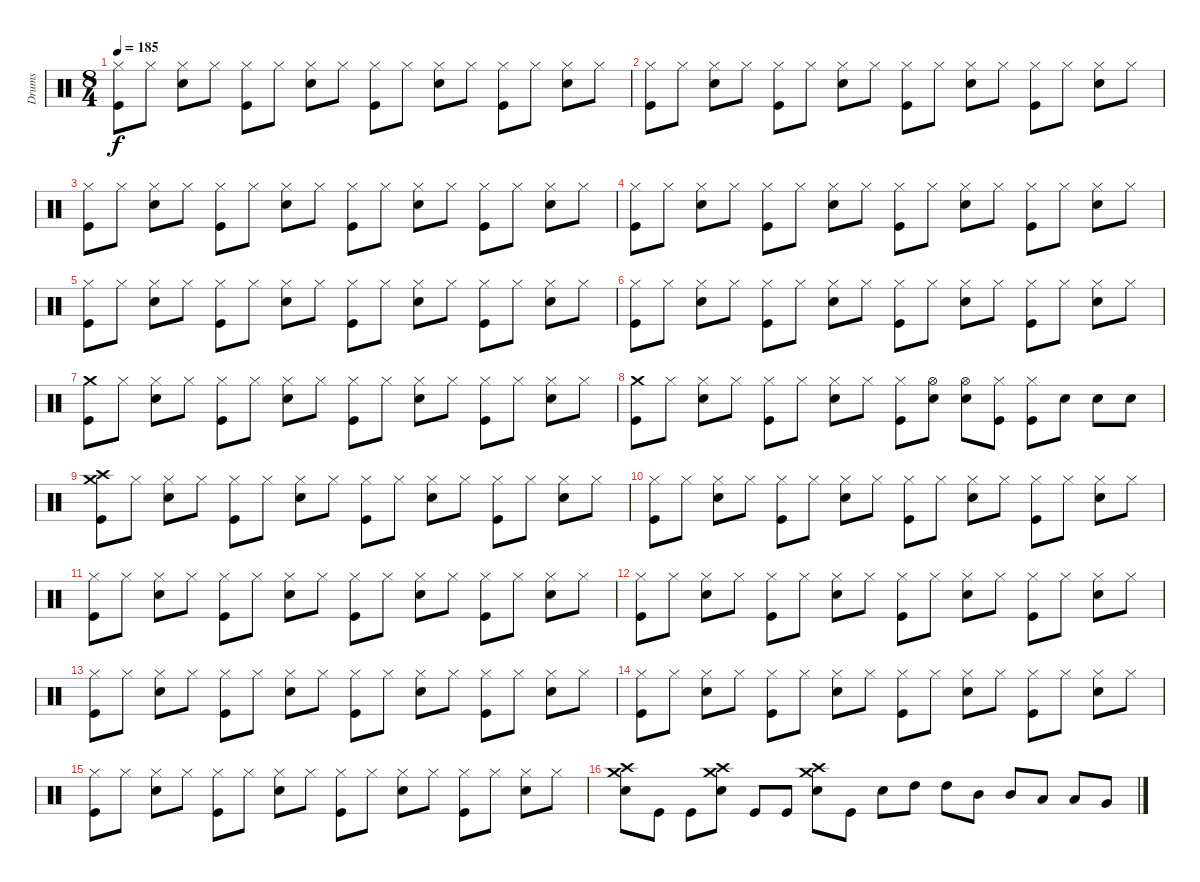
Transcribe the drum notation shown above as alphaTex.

\track ("Drums" "Drums") {instrument percussion}
\staff {score}
\articulation defaults
\ts (8 4)
\tempo 185
\clef neutral
\ks c
("Hi-Hat (closed)" "Kick (hit)").8{dy f} "Hi-Hat (closed)".8 ("Hi-Hat (closed)" "Snare (hit) 2").8 "Hi-Hat (closed)".8 ("Hi-Hat (closed)" "Kick (hit)").8 "Hi-Hat (closed)".8 ("Hi-Hat (closed)" "Snare (hit) 2").8 "Hi-Hat (closed)".8 ("Hi-Hat (closed)" "Kick (hit)").8 "Hi-Hat (closed)".8 ("Hi-Hat (closed)" "Snare (hit) 2").8 "Hi-Hat (closed)".8 ("Hi-Hat (closed)" "Kick (hit)").8 "Hi-Hat (closed)".8 ("Hi-Hat (closed)" "Snare (hit) 2").8 "Hi-Hat (closed)".8 |
("Hi-Hat (closed)" "Kick (hit)").8 "Hi-Hat (closed)".8 ("Hi-Hat (closed)" "Snare (hit) 2").8 "Hi-Hat (closed)".8 ("Hi-Hat (closed)" "Kick (hit)").8 "Hi-Hat (closed)".8 ("Hi-Hat (closed)" "Snare (hit) 2").8 "Hi-Hat (closed)".8 ("Hi-Hat (closed)" "Kick (hit)").8 "Hi-Hat (closed)".8 ("Hi-Hat (closed)" "Snare (hit) 2").8 "Hi-Hat (closed)".8 ("Hi-Hat (closed)" "Kick (hit)").8 "Hi-Hat (closed)".8 ("Hi-Hat (closed)" "Snare (hit) 2").8 "Hi-Hat (closed)".8 |
("Hi-Hat (closed)" "Kick (hit)").8 "Hi-Hat (closed)".8 ("Hi-Hat (closed)" "Snare (hit) 2").8 "Hi-Hat (closed)".8 ("Hi-Hat (closed)" "Kick (hit)").8 "Hi-Hat (closed)".8 ("Hi-Hat (closed)" "Snare (hit) 2").8 "Hi-Hat (closed)".8 ("Hi-Hat (closed)" "Kick (hit)").8 "Hi-Hat (closed)".8 ("Hi-Hat (closed)" "Snare (hit) 2").8 "Hi-Hat (closed)".8 ("Hi-Hat (closed)" "Kick (hit)").8 "Hi-Hat (closed)".8 ("Hi-Hat (closed)" "Snare (hit) 2").8 "Hi-Hat (closed)".8 |
("Hi-Hat (closed)" "Kick (hit)").8 "Hi-Hat (closed)".8 ("Hi-Hat (closed)" "Snare (hit) 2").8 "Hi-Hat (closed)".8 ("Hi-Hat (closed)" "Kick (hit)").8 "Hi-Hat (closed)".8 ("Hi-Hat (closed)" "Snare (hit) 2").8 "Hi-Hat (closed)".8 ("Hi-Hat (closed)" "Kick (hit)").8 "Hi-Hat (closed)".8 ("Hi-Hat (closed)" "Snare (hit) 2").8 "Hi-Hat (closed)".8 ("Hi-Hat (closed)" "Kick (hit)").8 "Hi-Hat (closed)".8 ("Hi-Hat (closed)" "Snare (hit) 2").8 "Hi-Hat (closed)".8 |
("Hi-Hat (closed)" "Kick (hit)").8 "Hi-Hat (closed)".8 ("Hi-Hat (closed)" "Snare (hit) 2").8 "Hi-Hat (closed)".8 ("Hi-Hat (closed)" "Kick (hit)").8 "Hi-Hat (closed)".8 ("Hi-Hat (closed)" "Snare (hit) 2").8 "Hi-Hat (closed)".8 ("Hi-Hat (closed)" "Kick (hit)").8 "Hi-Hat (closed)".8 ("Hi-Hat (closed)" "Snare (hit) 2").8 "Hi-Hat (closed)".8 ("Hi-Hat (closed)" "Kick (hit)").8 "Hi-Hat (closed)".8 ("Hi-Hat (closed)" "Snare (hit) 2").8 "Hi-Hat (closed)".8 |
("Hi-Hat (closed)" "Kick (hit)").8 "Hi-Hat (closed)".8 ("Hi-Hat (closed)" "Snare (hit) 2").8 "Hi-Hat (closed)".8 ("Hi-Hat (closed)" "Kick (hit)").8 "Hi-Hat (closed)".8 ("Hi-Hat (closed)" "Snare (hit) 2").8 "Hi-Hat (closed)".8 ("Hi-Hat (closed)" "Kick (hit)").8 "Hi-Hat (closed)".8 ("Hi-Hat (closed)" "Snare (hit) 2").8 "Hi-Hat (closed)".8 ("Hi-Hat (closed)" "Kick (hit)").8 "Hi-Hat (closed)".8 ("Hi-Hat (closed)" "Snare (hit) 2").8 "Hi-Hat (closed)".8 |
("Crash medium (hit)" "Kick (hit)").8 "Hi-Hat (closed)".8 ("Hi-Hat (closed)" "Snare (hit) 2").8 "Hi-Hat (closed)".8 ("Hi-Hat (closed)" "Kick (hit)").8 "Hi-Hat (closed)".8 ("Hi-Hat (closed)" "Snare (hit) 2").8 "Hi-Hat (closed)".8 ("Hi-Hat (closed)" "Kick (hit)").8 "Hi-Hat (closed)".8 ("Hi-Hat (closed)" "Snare (hit) 2").8 "Hi-Hat (closed)".8 ("Hi-Hat (closed)" "Kick (hit)").8 "Hi-Hat (closed)".8 ("Hi-Hat (closed)" "Snare (hit) 2").8 "Hi-Hat (closed)".8 |
("Crash medium (hit)" "Kick (hit)").8 "Hi-Hat (closed)".8 ("Hi-Hat (closed)" "Snare (hit) 2").8 "Hi-Hat (closed)".8 ("Hi-Hat (closed)" "Kick (hit)").8 "Hi-Hat (closed)".8 ("Hi-Hat (closed)" "Snare (hit) 2").8 "Hi-Hat (closed)".8 ("Hi-Hat (closed)" "Kick (hit)").8 ("Hi-Hat (open)" "Snare (hit) 2").8 ("Hi-Hat (open)" "Snare (hit) 2").8 ("Hi-Hat (closed)" "Kick (hit)").8 ("Hi-Hat (closed)" "Kick (hit)").8 "Snare (hit) 2".8 "Snare (hit) 2".8 "Snare (hit) 2".8 |
("Crash medium (hit)" "Crash high (hit)" "Kick (hit)").8 "Hi-Hat (closed)".8 ("Hi-Hat (closed)" "Snare (hit) 2").8 "Hi-Hat (closed)".8 ("Hi-Hat (closed)" "Kick (hit)").8 "Hi-Hat (closed)".8 ("Hi-Hat (closed)" "Snare (hit) 2").8 "Hi-Hat (closed)".8 ("Hi-Hat (closed)" "Kick (hit)").8 "Hi-Hat (closed)".8 ("Hi-Hat (closed)" "Snare (hit) 2").8 "Hi-Hat (closed)".8 ("Hi-Hat (closed)" "Kick (hit)").8 "Hi-Hat (closed)".8 ("Hi-Hat (closed)" "Snare (hit) 2").8 "Hi-Hat (closed)".8 |
("Hi-Hat (closed)" "Kick (hit)").8 "Hi-Hat (closed)".8 ("Hi-Hat (closed)" "Snare (hit) 2").8 "Hi-Hat (closed)".8 ("Hi-Hat (closed)" "Kick (hit)").8 "Hi-Hat (closed)".8 ("Hi-Hat (closed)" "Snare (hit) 2").8 "Hi-Hat (closed)".8 ("Hi-Hat (closed)" "Kick (hit)").8 "Hi-Hat (closed)".8 ("Hi-Hat (closed)" "Snare (hit) 2").8 "Hi-Hat (closed)".8 ("Hi-Hat (closed)" "Kick (hit)").8 "Hi-Hat (closed)".8 ("Hi-Hat (closed)" "Snare (hit) 2").8 "Hi-Hat (closed)".8 |
("Hi-Hat (closed)" "Kick (hit)").8 "Hi-Hat (closed)".8 ("Hi-Hat (closed)" "Snare (hit) 2").8 "Hi-Hat (closed)".8 ("Hi-Hat (closed)" "Kick (hit)").8 "Hi-Hat (closed)".8 ("Hi-Hat (closed)" "Snare (hit) 2").8 "Hi-Hat (closed)".8 ("Hi-Hat (closed)" "Kick (hit)").8 "Hi-Hat (closed)".8 ("Hi-Hat (closed)" "Snare (hit) 2").8 "Hi-Hat (closed)".8 ("Hi-Hat (closed)" "Kick (hit)").8 "Hi-Hat (closed)".8 ("Hi-Hat (closed)" "Snare (hit) 2").8 "Hi-Hat (closed)".8 |
("Hi-Hat (closed)" "Kick (hit)").8 "Hi-Hat (closed)".8 ("Hi-Hat (closed)" "Snare (hit) 2").8 "Hi-Hat (closed)".8 ("Hi-Hat (closed)" "Kick (hit)").8 "Hi-Hat (closed)".8 ("Hi-Hat (closed)" "Snare (hit) 2").8 "Hi-Hat (closed)".8 ("Hi-Hat (closed)" "Kick (hit)").8 "Hi-Hat (closed)".8 ("Hi-Hat (closed)" "Snare (hit) 2").8 "Hi-Hat (closed)".8 ("Hi-Hat (closed)" "Kick (hit)").8 "Hi-Hat (closed)".8 ("Hi-Hat (closed)" "Snare (hit) 2").8 "Hi-Hat (closed)".8 |
("Hi-Hat (closed)" "Kick (hit)").8 "Hi-Hat (closed)".8 ("Hi-Hat (closed)" "Snare (hit) 2").8 "Hi-Hat (closed)".8 ("Hi-Hat (closed)" "Kick (hit)").8 "Hi-Hat (closed)".8 ("Hi-Hat (closed)" "Snare (hit) 2").8 "Hi-Hat (closed)".8 ("Hi-Hat (closed)" "Kick (hit)").8 "Hi-Hat (closed)".8 ("Hi-Hat (closed)" "Snare (hit) 2").8 "Hi-Hat (closed)".8 ("Hi-Hat (closed)" "Kick (hit)").8 "Hi-Hat (closed)".8 ("Hi-Hat (closed)" "Snare (hit) 2").8 "Hi-Hat (closed)".8 |
("Hi-Hat (closed)" "Kick (hit)").8 "Hi-Hat (closed)".8 ("Hi-Hat (closed)" "Snare (hit) 2").8 "Hi-Hat (closed)".8 ("Hi-Hat (closed)" "Kick (hit)").8 "Hi-Hat (closed)".8 ("Hi-Hat (closed)" "Snare (hit) 2").8 "Hi-Hat (closed)".8 ("Hi-Hat (closed)" "Kick (hit)").8 "Hi-Hat (closed)".8 ("Hi-Hat (closed)" "Snare (hit) 2").8 "Hi-Hat (closed)".8 ("Hi-Hat (closed)" "Kick (hit)").8 "Hi-Hat (closed)".8 ("Hi-Hat (closed)" "Snare (hit) 2").8 "Hi-Hat (closed)".8 |
("Hi-Hat (closed)" "Kick (hit)").8 "Hi-Hat (closed)".8 ("Hi-Hat (closed)" "Snare (hit) 2").8 "Hi-Hat (closed)".8 ("Hi-Hat (closed)" "Kick (hit)").8 "Hi-Hat (closed)".8 ("Hi-Hat (closed)" "Snare (hit) 2").8 "Hi-Hat (closed)".8 ("Hi-Hat (closed)" "Kick (hit)").8 "Hi-Hat (closed)".8 ("Hi-Hat (closed)" "Snare (hit) 2").8 "Hi-Hat (closed)".8 ("Hi-Hat (closed)" "Kick (hit)").8 "Hi-Hat (closed)".8 ("Hi-Hat (closed)" "Snare (hit) 2").8 "Hi-Hat (closed)".8 |
("Crash medium (hit)" "Crash high (hit)" "Snare (hit) 2").8 "Kick (hit)".8 "Kick (hit)".8 ("Crash medium (hit)" "Crash high (hit)" "Snare (hit) 2").8 "Kick (hit)".8 "Kick (hit)".8 ("Crash medium (hit)" "Crash high (hit)" "Snare (hit) 2").8 "Kick (hit)".8 "Snare (hit) 2".8 "High Tom (hit)".8 "High Tom (hit)".8 "Mid Tom (hit)".8 "Mid Tom (hit)".8 "Low Tom (hit)".8 "Low Tom (hit)".8 "Very Low Tom (hit)".8
